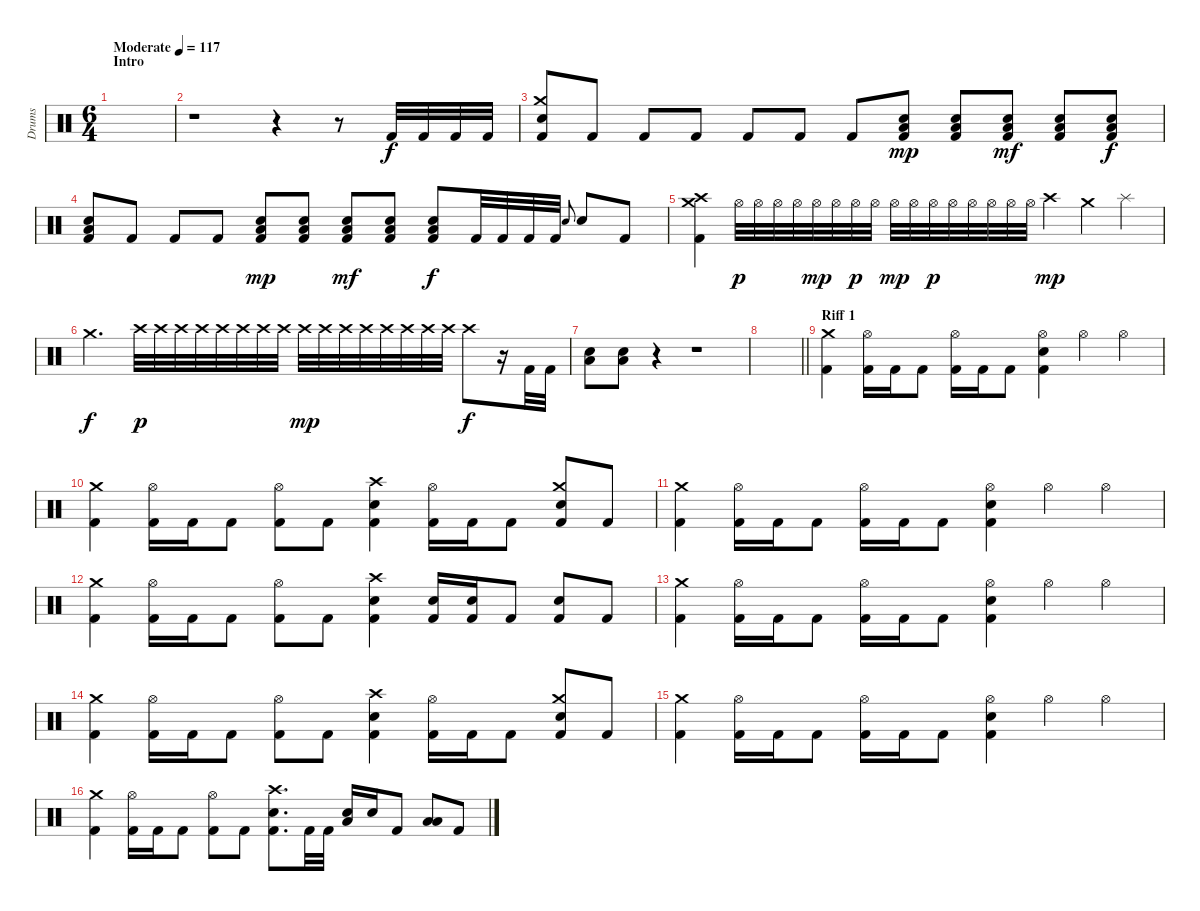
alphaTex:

\track ("Drums" "Drums") {instrument percussion}
\staff {score}
\articulation defaults
\ts (6 4)
\section ("" "Intro")
\tempo (117 "Moderate")
\clef neutral
\ks c
|
r.1 r.4 r.8 "Kick (hit) 2".32 "Kick (hit) 2".32 "Kick (hit) 2".32 "Kick (hit) 2".32 |
("Kick (hit) 2" "Crash medium (hit)" "Electric Snare (hit)").8 "Kick (hit) 2".8 "Kick (hit) 2".8 "Kick (hit) 2".8 "Kick (hit) 2".8 "Kick (hit) 2".8 "Kick (hit) 2".8 ("Kick (hit) 2" "Electric Snare (hit)" "Low Floor Tom (hit)").8{dy mp} ("Kick (hit) 2" "Electric Snare (hit)" "Low Floor Tom (hit)").8 ("Kick (hit) 2" "Electric Snare (hit)" "Low Floor Tom (hit)").8{dy mf} ("Kick (hit) 2" "Electric Snare (hit)" "Low Floor Tom (hit)").8 ("Kick (hit) 2" "Electric Snare (hit)" "Low Floor Tom (hit)").8{dy f} |
("Kick (hit) 2" "Electric Snare (hit)" "Low Floor Tom (hit)").8 "Kick (hit) 2".8 "Kick (hit) 2".8 "Kick (hit) 2".8 ("Kick (hit) 2" "Low Floor Tom (hit)" "Electric Snare (hit)").8{dy mp} ("Kick (hit) 2" "Low Floor Tom (hit)" "Electric Snare (hit)").8 ("Kick (hit) 2" "Electric Snare (hit)" "Low Floor Tom (hit)").8{dy mf} ("Kick (hit) 2" "Electric Snare (hit)" "Low Floor Tom (hit)").8 ("Kick (hit) 2" "Electric Snare (hit)" "Low Floor Tom (hit)").8{dy f} "Kick (hit) 2".32 "Kick (hit) 2".32 "Kick (hit) 2".32 "Kick (hit) 2".32 "Electric Snare (hit)".8{gr onbeat} "Electric Snare (hit)".8 "Kick (hit) 2".8 |
("Crash high (hit)" "Crash medium (hit)" "Kick (hit) 2").4 "Hi-Hat (open)".32{dy p} "Hi-Hat (open)".32 "Hi-Hat (open)".32 "Hi-Hat (open)".32 "Hi-Hat (open)".32{dy mp} "Hi-Hat (open)".32 "Hi-Hat (open)".32{dy p} "Hi-Hat (open)".32 "Hi-Hat (open)".32{dy mp} "Hi-Hat (open)".32 "Hi-Hat (open)".32{dy p} "Hi-Hat (open)".32 "Hi-Hat (open)".32 "Hi-Hat (open)".32 "Hi-Hat (open)".32 "Hi-Hat (open)".32 "Crash high (hit)".4{dy mp} "Crash medium (hit)".4 "Splash (hit)".4 |
"Crash medium (hit)".2{d dy f} "Crash high (hit)".32{dy p} "Crash high (hit)".32 "Crash high (hit)".32 "Crash high (hit)".32 "Crash high (hit)".32 "Crash high (hit)".32 "Crash high (hit)".32 "Crash high (hit)".32 "Crash high (hit)".32{dy mp} "Crash high (hit)".32 "Crash high (hit)".32 "Crash high (hit)".32 "Crash high (hit)".32 "Crash high (hit)".32 "Crash high (hit)".32 "Crash high (hit)".32 "Crash high (hit)".8{dy f} r.16 "Kick (hit) 2".32 "Kick (hit) 2".32 |
("Electric Snare (hit)" "Low Floor Tom (hit)").8 ("Electric Snare (hit)" "Low Floor Tom (hit)").8 r.4 r.1 |
\barLineRight lightlight
|
\section ("" "Riff 1")
("Crash medium (hit)" "Kick (hit) 2").4 ("Hi-Hat (open)" "Kick (hit) 2").16 "Kick (hit) 2".16 "Kick (hit) 2".8 ("Hi-Hat (open)" "Kick (hit) 2").16 "Kick (hit) 2".16 "Kick (hit) 2".8 ("Electric Snare (hit)" "Hi-Hat (open)" "Kick (hit) 2").4 "Hi-Hat (open)".4 "Hi-Hat (open)".4 |
("Crash medium (hit)" "Kick (hit) 2").4 ("Hi-Hat (open)" "Kick (hit) 2").16 "Kick (hit) 2".16 "Kick (hit) 2".8 ("Kick (hit) 2" "Hi-Hat (open)").8 "Kick (hit) 2".8 ("Electric Snare (hit)" "Crash high (hit)" "Kick (hit) 2").4 ("Hi-Hat (open)" "Kick (hit) 2").16 "Kick (hit) 2".16 "Kick (hit) 2".8 ("Electric Snare (hit)" "Kick (hit) 2" "Crash medium (hit)").8 "Kick (hit) 2".8 |
("Crash medium (hit)" "Kick (hit) 2").4 ("Hi-Hat (open)" "Kick (hit) 2").16 "Kick (hit) 2".16 "Kick (hit) 2".8 ("Hi-Hat (open)" "Kick (hit) 2").16 "Kick (hit) 2".16 "Kick (hit) 2".8 ("Electric Snare (hit)" "Hi-Hat (open)" "Kick (hit) 2").4 "Hi-Hat (open)".4 "Hi-Hat (open)".4 |
("Crash medium (hit)" "Kick (hit) 2").4 ("Hi-Hat (open)" "Kick (hit) 2").16 "Kick (hit) 2".16 "Kick (hit) 2".8 ("Kick (hit) 2" "Hi-Hat (open)").8 "Kick (hit) 2".8 ("Electric Snare (hit)" "Crash high (hit)" "Kick (hit) 2").4 ("Kick (hit) 2" "Electric Snare (hit)").16 ("Kick (hit) 2" "Electric Snare (hit)").16 "Kick (hit) 2".8 ("Kick (hit) 2" "Electric Snare (hit)").8 "Kick (hit) 2".8 |
("Crash medium (hit)" "Kick (hit) 2").4 ("Hi-Hat (open)" "Kick (hit) 2").16 "Kick (hit) 2".16 "Kick (hit) 2".8 ("Hi-Hat (open)" "Kick (hit) 2").16 "Kick (hit) 2".16 "Kick (hit) 2".8 ("Electric Snare (hit)" "Hi-Hat (open)" "Kick (hit) 2").4 "Hi-Hat (open)".4 "Hi-Hat (open)".4 |
("Crash medium (hit)" "Kick (hit) 2").4 ("Hi-Hat (open)" "Kick (hit) 2").16 "Kick (hit) 2".16 "Kick (hit) 2".8 ("Kick (hit) 2" "Hi-Hat (open)").8 "Kick (hit) 2".8 ("Electric Snare (hit)" "Crash high (hit)" "Kick (hit) 2").4 ("Hi-Hat (open)" "Kick (hit) 2").16 "Kick (hit) 2".16 "Kick (hit) 2".8 ("Electric Snare (hit)" "Kick (hit) 2" "Crash medium (hit)").8 "Kick (hit) 2".8 |
("Crash medium (hit)" "Kick (hit) 2").4 ("Hi-Hat (open)" "Kick (hit) 2").16 "Kick (hit) 2".16 "Kick (hit) 2".8 ("Hi-Hat (open)" "Kick (hit) 2").16 "Kick (hit) 2".16 "Kick (hit) 2".8 ("Electric Snare (hit)" "Hi-Hat (open)" "Kick (hit) 2").4 "Hi-Hat (open)".4 "Hi-Hat (open)".4 |
("Crash medium (hit)" "Kick (hit) 2").4 ("Hi-Hat (open)" "Kick (hit) 2").16 "Kick (hit) 2".16 "Kick (hit) 2".8 ("Kick (hit) 2" "Hi-Hat (open)").8 "Kick (hit) 2".8 ("Electric Snare (hit)" "Crash high (hit)" "Kick (hit) 2").8{d} "Kick (hit) 2".32 "Kick (hit) 2".32 ("Electric Snare (hit)" "Low Floor Tom (hit)").16 "Electric Snare (hit)".16 "Kick (hit) 2".8 ("Low Tom (hit)" "Low Floor Tom (hit)").8 "Kick (hit) 2".8
